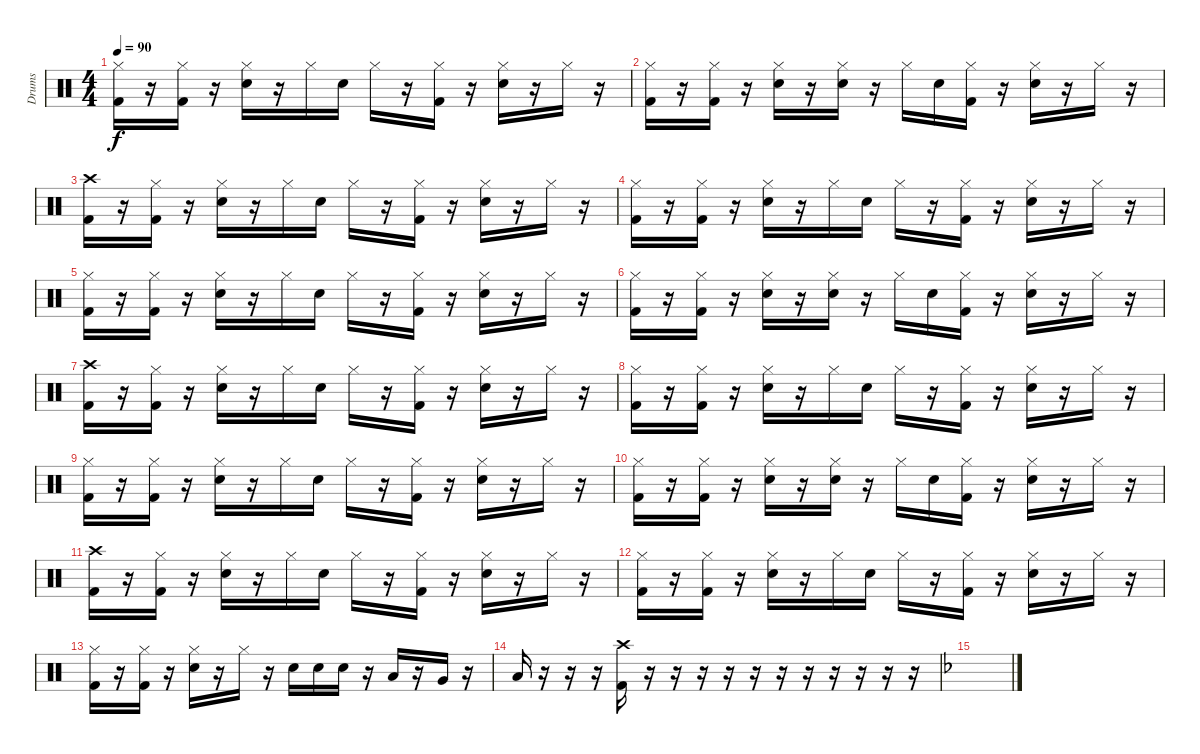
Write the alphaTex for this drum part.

\track ("Drums" "Drums") {instrument percussion}
\staff {score}
\articulation defaults
\ts (4 4)
\tempo 90
\clef neutral
\ks c
("Hi-Hat (closed)" "Kick (hit) 2").16{dy f} r.16 ("Hi-Hat (closed)" "Kick (hit) 2").16 r.16 ("Hi-Hat (closed)" "Snare (hit) 2").16 r.16 "Hi-Hat (closed)".16 "Snare (hit) 2".16 "Hi-Hat (closed)".16 r.16 ("Hi-Hat (closed)" "Kick (hit) 2").16 r.16 ("Hi-Hat (closed)" "Snare (hit) 2").16 r.16 "Hi-Hat (closed)".16 r.16 |
("Hi-Hat (closed)" "Kick (hit) 2").16 r.16 ("Hi-Hat (closed)" "Kick (hit) 2").16 r.16 ("Hi-Hat (closed)" "Snare (hit) 2").16 r.16 ("Hi-Hat (closed)" "Snare (hit) 2").16 r.16 "Hi-Hat (closed)".16 "Snare (hit) 2".16 ("Hi-Hat (closed)" "Kick (hit) 2").16 r.16 ("Hi-Hat (closed)" "Snare (hit) 2").16 r.16 "Hi-Hat (closed)".16 r.16 |
("Crash high (hit)" "Kick (hit) 2").16 r.16 ("Hi-Hat (closed)" "Kick (hit) 2").16 r.16 ("Hi-Hat (closed)" "Snare (hit) 2").16 r.16 "Hi-Hat (closed)".16 "Snare (hit) 2".16 "Hi-Hat (closed)".16 r.16 ("Hi-Hat (closed)" "Kick (hit) 2").16 r.16 ("Hi-Hat (closed)" "Snare (hit) 2").16 r.16 "Hi-Hat (closed)".16 r.16 |
("Hi-Hat (closed)" "Kick (hit) 2").16 r.16 ("Hi-Hat (closed)" "Kick (hit) 2").16 r.16 ("Hi-Hat (closed)" "Snare (hit) 2").16 r.16 "Hi-Hat (closed)".16 "Snare (hit) 2".16 "Hi-Hat (closed)".16 r.16 ("Hi-Hat (closed)" "Kick (hit) 2").16 r.16 ("Hi-Hat (closed)" "Snare (hit) 2").16 r.16 "Hi-Hat (closed)".16 r.16 |
("Hi-Hat (closed)" "Kick (hit) 2").16 r.16 ("Hi-Hat (closed)" "Kick (hit) 2").16 r.16 ("Hi-Hat (closed)" "Snare (hit) 2").16 r.16 "Hi-Hat (closed)".16 "Snare (hit) 2".16 "Hi-Hat (closed)".16 r.16 ("Hi-Hat (closed)" "Kick (hit) 2").16 r.16 ("Hi-Hat (closed)" "Snare (hit) 2").16 r.16 "Hi-Hat (closed)".16 r.16 |
("Hi-Hat (closed)" "Kick (hit) 2").16 r.16 ("Hi-Hat (closed)" "Kick (hit) 2").16 r.16 ("Hi-Hat (closed)" "Snare (hit) 2").16 r.16 ("Hi-Hat (closed)" "Snare (hit) 2").16 r.16 "Hi-Hat (closed)".16 "Snare (hit) 2".16 ("Hi-Hat (closed)" "Kick (hit) 2").16 r.16 ("Hi-Hat (closed)" "Snare (hit) 2").16 r.16 "Hi-Hat (closed)".16 r.16 |
("Crash high (hit)" "Kick (hit) 2").16 r.16 ("Hi-Hat (closed)" "Kick (hit) 2").16 r.16 ("Hi-Hat (closed)" "Snare (hit) 2").16 r.16 "Hi-Hat (closed)".16 "Snare (hit) 2".16 "Hi-Hat (closed)".16 r.16 ("Hi-Hat (closed)" "Kick (hit) 2").16 r.16 ("Hi-Hat (closed)" "Snare (hit) 2").16 r.16 "Hi-Hat (closed)".16 r.16 |
("Hi-Hat (closed)" "Kick (hit) 2").16 r.16 ("Hi-Hat (closed)" "Kick (hit) 2").16 r.16 ("Hi-Hat (closed)" "Snare (hit) 2").16 r.16 "Hi-Hat (closed)".16 "Snare (hit) 2".16 "Hi-Hat (closed)".16 r.16 ("Hi-Hat (closed)" "Kick (hit) 2").16 r.16 ("Hi-Hat (closed)" "Snare (hit) 2").16 r.16 "Hi-Hat (closed)".16 r.16 |
("Hi-Hat (closed)" "Kick (hit) 2").16 r.16 ("Hi-Hat (closed)" "Kick (hit) 2").16 r.16 ("Hi-Hat (closed)" "Snare (hit) 2").16 r.16 "Hi-Hat (closed)".16 "Snare (hit) 2".16 "Hi-Hat (closed)".16 r.16 ("Hi-Hat (closed)" "Kick (hit) 2").16 r.16 ("Hi-Hat (closed)" "Snare (hit) 2").16 r.16 "Hi-Hat (closed)".16 r.16 |
("Hi-Hat (closed)" "Kick (hit) 2").16 r.16 ("Hi-Hat (closed)" "Kick (hit) 2").16 r.16 ("Hi-Hat (closed)" "Snare (hit) 2").16 r.16 ("Hi-Hat (closed)" "Snare (hit) 2").16 r.16 "Hi-Hat (closed)".16 "Snare (hit) 2".16 ("Hi-Hat (closed)" "Kick (hit) 2").16 r.16 ("Hi-Hat (closed)" "Snare (hit) 2").16 r.16 "Hi-Hat (closed)".16 r.16 |
("Crash high (hit)" "Kick (hit) 2").16 r.16 ("Hi-Hat (closed)" "Kick (hit) 2").16 r.16 ("Hi-Hat (closed)" "Snare (hit) 2").16 r.16 "Hi-Hat (closed)".16 "Snare (hit) 2".16 "Hi-Hat (closed)".16 r.16 ("Hi-Hat (closed)" "Kick (hit) 2").16 r.16 ("Hi-Hat (closed)" "Snare (hit) 2").16 r.16 "Hi-Hat (closed)".16 r.16 |
("Hi-Hat (closed)" "Kick (hit) 2").16 r.16 ("Hi-Hat (closed)" "Kick (hit) 2").16 r.16 ("Hi-Hat (closed)" "Snare (hit) 2").16 r.16 "Hi-Hat (closed)".16 "Snare (hit) 2".16 "Hi-Hat (closed)".16 r.16 ("Hi-Hat (closed)" "Kick (hit) 2").16 r.16 ("Hi-Hat (closed)" "Snare (hit) 2").16 r.16 "Hi-Hat (closed)".16 r.16 |
("Hi-Hat (closed)" "Kick (hit) 2").16 r.16 ("Hi-Hat (closed)" "Kick (hit) 2").16 r.16 ("Hi-Hat (closed)" "Snare (hit) 2").16 r.16 "Hi-Hat (closed)".16 r.16 "Snare (hit) 2".16 "Snare (hit) 2".16 "Snare (hit) 2".16 r.16 "Low Tom (hit)".16 r.16 "Very Low Tom (hit)".16 r.16 |
"Low Floor Tom (hit)".16 r.16 r.16 r.16 ("Crash high (hit)" "Kick (hit) 2").16 r.16 r.16 r.16 r.16 r.16 r.16 r.16 r.16 r.16 r.16 r.16 |
\ks f
